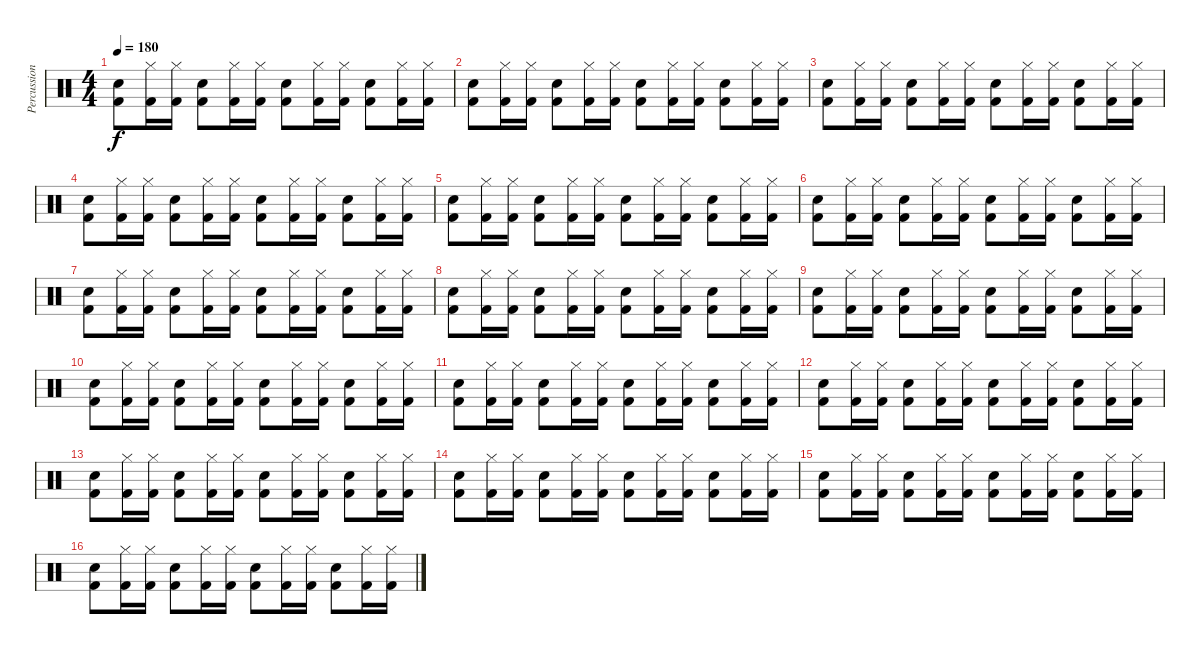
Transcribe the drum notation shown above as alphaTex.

\track ("Percussion" "Percussion") {instrument percussion}
\staff {score}
\articulation defaults
\ts (4 4)
\tempo 180
\clef neutral
\ks c
("Electric Snare (hit)" "Kick (hit) 2").8{dy f} ("Hi-Hat (closed)" "Kick (hit) 2").16 ("Hi-Hat (closed)" "Kick (hit) 2").16 ("Electric Snare (hit)" "Kick (hit) 2").8 ("Hi-Hat (closed)" "Kick (hit) 2").16 ("Hi-Hat (closed)" "Kick (hit) 2").16 ("Electric Snare (hit)" "Kick (hit) 2").8 ("Hi-Hat (closed)" "Kick (hit) 2").16 ("Hi-Hat (closed)" "Kick (hit) 2").16 ("Electric Snare (hit)" "Kick (hit) 2").8 ("Hi-Hat (closed)" "Kick (hit) 2").16 ("Hi-Hat (closed)" "Kick (hit) 2").16 |
("Electric Snare (hit)" "Kick (hit) 2").8 ("Hi-Hat (closed)" "Kick (hit) 2").16 ("Hi-Hat (closed)" "Kick (hit) 2").16 ("Electric Snare (hit)" "Kick (hit) 2").8 ("Hi-Hat (closed)" "Kick (hit) 2").16 ("Hi-Hat (closed)" "Kick (hit) 2").16 ("Electric Snare (hit)" "Kick (hit) 2").8 ("Hi-Hat (closed)" "Kick (hit) 2").16 ("Hi-Hat (closed)" "Kick (hit) 2").16 ("Electric Snare (hit)" "Kick (hit) 2").8 ("Hi-Hat (closed)" "Kick (hit) 2").16 ("Hi-Hat (closed)" "Kick (hit) 2").16 |
("Electric Snare (hit)" "Kick (hit) 2").8 ("Hi-Hat (closed)" "Kick (hit) 2").16 ("Hi-Hat (closed)" "Kick (hit) 2").16 ("Electric Snare (hit)" "Kick (hit) 2").8 ("Hi-Hat (closed)" "Kick (hit) 2").16 ("Hi-Hat (closed)" "Kick (hit) 2").16 ("Electric Snare (hit)" "Kick (hit) 2").8 ("Hi-Hat (closed)" "Kick (hit) 2").16 ("Hi-Hat (closed)" "Kick (hit) 2").16 ("Electric Snare (hit)" "Kick (hit) 2").8 ("Hi-Hat (closed)" "Kick (hit) 2").16 ("Hi-Hat (closed)" "Kick (hit) 2").16 |
("Electric Snare (hit)" "Kick (hit) 2").8 ("Hi-Hat (closed)" "Kick (hit) 2").16 ("Hi-Hat (closed)" "Kick (hit) 2").16 ("Electric Snare (hit)" "Kick (hit) 2").8 ("Hi-Hat (closed)" "Kick (hit) 2").16 ("Hi-Hat (closed)" "Kick (hit) 2").16 ("Electric Snare (hit)" "Kick (hit) 2").8 ("Hi-Hat (closed)" "Kick (hit) 2").16 ("Hi-Hat (closed)" "Kick (hit) 2").16 ("Electric Snare (hit)" "Kick (hit) 2").8 ("Hi-Hat (closed)" "Kick (hit) 2").16 ("Hi-Hat (closed)" "Kick (hit) 2").16 |
("Electric Snare (hit)" "Kick (hit) 2").8 ("Hi-Hat (closed)" "Kick (hit) 2").16 ("Hi-Hat (closed)" "Kick (hit) 2").16 ("Electric Snare (hit)" "Kick (hit) 2").8 ("Hi-Hat (closed)" "Kick (hit) 2").16 ("Hi-Hat (closed)" "Kick (hit) 2").16 ("Electric Snare (hit)" "Kick (hit) 2").8 ("Hi-Hat (closed)" "Kick (hit) 2").16 ("Hi-Hat (closed)" "Kick (hit) 2").16 ("Electric Snare (hit)" "Kick (hit) 2").8 ("Hi-Hat (closed)" "Kick (hit) 2").16 ("Hi-Hat (closed)" "Kick (hit) 2").16 |
("Electric Snare (hit)" "Kick (hit) 2").8 ("Hi-Hat (closed)" "Kick (hit) 2").16 ("Hi-Hat (closed)" "Kick (hit) 2").16 ("Electric Snare (hit)" "Kick (hit) 2").8 ("Hi-Hat (closed)" "Kick (hit) 2").16 ("Hi-Hat (closed)" "Kick (hit) 2").16 ("Electric Snare (hit)" "Kick (hit) 2").8 ("Hi-Hat (closed)" "Kick (hit) 2").16 ("Hi-Hat (closed)" "Kick (hit) 2").16 ("Electric Snare (hit)" "Kick (hit) 2").8 ("Hi-Hat (closed)" "Kick (hit) 2").16 ("Hi-Hat (closed)" "Kick (hit) 2").16 |
("Electric Snare (hit)" "Kick (hit) 2").8 ("Hi-Hat (closed)" "Kick (hit) 2").16 ("Hi-Hat (closed)" "Kick (hit) 2").16 ("Electric Snare (hit)" "Kick (hit) 2").8 ("Hi-Hat (closed)" "Kick (hit) 2").16 ("Hi-Hat (closed)" "Kick (hit) 2").16 ("Electric Snare (hit)" "Kick (hit) 2").8 ("Hi-Hat (closed)" "Kick (hit) 2").16 ("Hi-Hat (closed)" "Kick (hit) 2").16 ("Electric Snare (hit)" "Kick (hit) 2").8 ("Hi-Hat (closed)" "Kick (hit) 2").16 ("Hi-Hat (closed)" "Kick (hit) 2").16 |
("Electric Snare (hit)" "Kick (hit) 2").8 ("Hi-Hat (closed)" "Kick (hit) 2").16 ("Hi-Hat (closed)" "Kick (hit) 2").16 ("Electric Snare (hit)" "Kick (hit) 2").8 ("Hi-Hat (closed)" "Kick (hit) 2").16 ("Hi-Hat (closed)" "Kick (hit) 2").16 ("Electric Snare (hit)" "Kick (hit) 2").8 ("Hi-Hat (closed)" "Kick (hit) 2").16 ("Hi-Hat (closed)" "Kick (hit) 2").16 ("Electric Snare (hit)" "Kick (hit) 2").8 ("Hi-Hat (closed)" "Kick (hit) 2").16 ("Hi-Hat (closed)" "Kick (hit) 2").16 |
("Electric Snare (hit)" "Kick (hit) 2").8 ("Hi-Hat (closed)" "Kick (hit) 2").16 ("Hi-Hat (closed)" "Kick (hit) 2").16 ("Electric Snare (hit)" "Kick (hit) 2").8 ("Hi-Hat (closed)" "Kick (hit) 2").16 ("Hi-Hat (closed)" "Kick (hit) 2").16 ("Electric Snare (hit)" "Kick (hit) 2").8 ("Hi-Hat (closed)" "Kick (hit) 2").16 ("Hi-Hat (closed)" "Kick (hit) 2").16 ("Electric Snare (hit)" "Kick (hit) 2").8 ("Hi-Hat (closed)" "Kick (hit) 2").16 ("Hi-Hat (closed)" "Kick (hit) 2").16 |
("Electric Snare (hit)" "Kick (hit) 2").8 ("Hi-Hat (closed)" "Kick (hit) 2").16 ("Hi-Hat (closed)" "Kick (hit) 2").16 ("Electric Snare (hit)" "Kick (hit) 2").8 ("Hi-Hat (closed)" "Kick (hit) 2").16 ("Hi-Hat (closed)" "Kick (hit) 2").16 ("Electric Snare (hit)" "Kick (hit) 2").8 ("Hi-Hat (closed)" "Kick (hit) 2").16 ("Hi-Hat (closed)" "Kick (hit) 2").16 ("Electric Snare (hit)" "Kick (hit) 2").8 ("Hi-Hat (closed)" "Kick (hit) 2").16 ("Hi-Hat (closed)" "Kick (hit) 2").16 |
("Electric Snare (hit)" "Kick (hit) 2").8 ("Hi-Hat (closed)" "Kick (hit) 2").16 ("Hi-Hat (closed)" "Kick (hit) 2").16 ("Electric Snare (hit)" "Kick (hit) 2").8 ("Hi-Hat (closed)" "Kick (hit) 2").16 ("Hi-Hat (closed)" "Kick (hit) 2").16 ("Electric Snare (hit)" "Kick (hit) 2").8 ("Hi-Hat (closed)" "Kick (hit) 2").16 ("Hi-Hat (closed)" "Kick (hit) 2").16 ("Electric Snare (hit)" "Kick (hit) 2").8 ("Hi-Hat (closed)" "Kick (hit) 2").16 ("Hi-Hat (closed)" "Kick (hit) 2").16 |
("Electric Snare (hit)" "Kick (hit) 2").8 ("Hi-Hat (closed)" "Kick (hit) 2").16 ("Hi-Hat (closed)" "Kick (hit) 2").16 ("Electric Snare (hit)" "Kick (hit) 2").8 ("Hi-Hat (closed)" "Kick (hit) 2").16 ("Hi-Hat (closed)" "Kick (hit) 2").16 ("Electric Snare (hit)" "Kick (hit) 2").8 ("Hi-Hat (closed)" "Kick (hit) 2").16 ("Hi-Hat (closed)" "Kick (hit) 2").16 ("Electric Snare (hit)" "Kick (hit) 2").8 ("Hi-Hat (closed)" "Kick (hit) 2").16 ("Hi-Hat (closed)" "Kick (hit) 2").16 |
("Electric Snare (hit)" "Kick (hit) 2").8 ("Hi-Hat (closed)" "Kick (hit) 2").16 ("Hi-Hat (closed)" "Kick (hit) 2").16 ("Electric Snare (hit)" "Kick (hit) 2").8 ("Hi-Hat (closed)" "Kick (hit) 2").16 ("Hi-Hat (closed)" "Kick (hit) 2").16 ("Electric Snare (hit)" "Kick (hit) 2").8 ("Hi-Hat (closed)" "Kick (hit) 2").16 ("Hi-Hat (closed)" "Kick (hit) 2").16 ("Electric Snare (hit)" "Kick (hit) 2").8 ("Hi-Hat (closed)" "Kick (hit) 2").16 ("Hi-Hat (closed)" "Kick (hit) 2").16 |
("Electric Snare (hit)" "Kick (hit) 2").8 ("Hi-Hat (closed)" "Kick (hit) 2").16 ("Hi-Hat (closed)" "Kick (hit) 2").16 ("Electric Snare (hit)" "Kick (hit) 2").8 ("Hi-Hat (closed)" "Kick (hit) 2").16 ("Hi-Hat (closed)" "Kick (hit) 2").16 ("Electric Snare (hit)" "Kick (hit) 2").8 ("Hi-Hat (closed)" "Kick (hit) 2").16 ("Hi-Hat (closed)" "Kick (hit) 2").16 ("Electric Snare (hit)" "Kick (hit) 2").8 ("Hi-Hat (closed)" "Kick (hit) 2").16 ("Hi-Hat (closed)" "Kick (hit) 2").16 |
("Electric Snare (hit)" "Kick (hit) 2").8 ("Hi-Hat (closed)" "Kick (hit) 2").16 ("Hi-Hat (closed)" "Kick (hit) 2").16 ("Electric Snare (hit)" "Kick (hit) 2").8 ("Hi-Hat (closed)" "Kick (hit) 2").16 ("Hi-Hat (closed)" "Kick (hit) 2").16 ("Electric Snare (hit)" "Kick (hit) 2").8 ("Hi-Hat (closed)" "Kick (hit) 2").16 ("Hi-Hat (closed)" "Kick (hit) 2").16 ("Electric Snare (hit)" "Kick (hit) 2").8 ("Hi-Hat (closed)" "Kick (hit) 2").16 ("Hi-Hat (closed)" "Kick (hit) 2").16 |
("Electric Snare (hit)" "Kick (hit) 2").8 ("Hi-Hat (closed)" "Kick (hit) 2").16 ("Hi-Hat (closed)" "Kick (hit) 2").16 ("Electric Snare (hit)" "Kick (hit) 2").8 ("Hi-Hat (closed)" "Kick (hit) 2").16 ("Hi-Hat (closed)" "Kick (hit) 2").16 ("Electric Snare (hit)" "Kick (hit) 2").8 ("Hi-Hat (closed)" "Kick (hit) 2").16 ("Hi-Hat (closed)" "Kick (hit) 2").16 ("Electric Snare (hit)" "Kick (hit) 2").8 ("Hi-Hat (closed)" "Kick (hit) 2").16 ("Hi-Hat (closed)" "Kick (hit) 2").16
